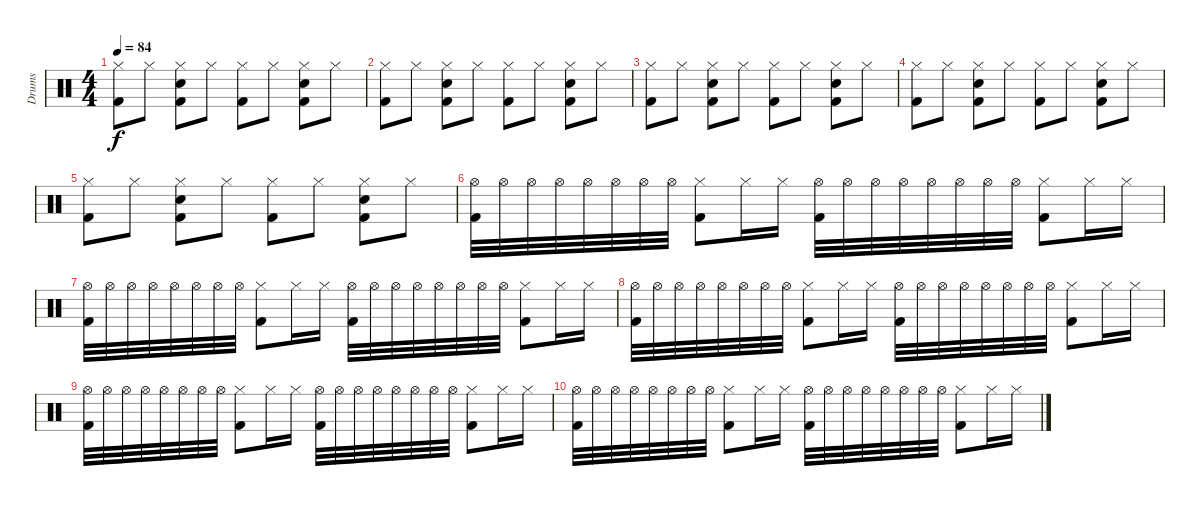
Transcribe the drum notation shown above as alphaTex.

\track ("Drums" "Drums") {instrument percussion}
\staff {score}
\articulation defaults
\ts (4 4)
\tempo 84
\clef neutral
\ks c
("Hi-Hat (closed)" "Kick (hit) 2").8{dy f} "Hi-Hat (closed)".8 ("Hi-Hat (closed)" "Snare (hit) 2" "Kick (hit) 2").8 "Hi-Hat (closed)".8 ("Hi-Hat (closed)" "Kick (hit) 2").8 "Hi-Hat (closed)".8 ("Hi-Hat (closed)" "Snare (hit) 2" "Kick (hit) 2").8 "Hi-Hat (closed)".8 |
("Hi-Hat (closed)" "Kick (hit) 2").8 "Hi-Hat (closed)".8 ("Hi-Hat (closed)" "Snare (hit) 2" "Kick (hit) 2").8 "Hi-Hat (closed)".8 ("Hi-Hat (closed)" "Kick (hit) 2").8 "Hi-Hat (closed)".8 ("Hi-Hat (closed)" "Snare (hit) 2" "Kick (hit) 2").8 "Hi-Hat (closed)".8 |
("Hi-Hat (closed)" "Kick (hit) 2").8 "Hi-Hat (closed)".8 ("Hi-Hat (closed)" "Snare (hit) 2" "Kick (hit) 2").8 "Hi-Hat (closed)".8 ("Hi-Hat (closed)" "Kick (hit) 2").8 "Hi-Hat (closed)".8 ("Hi-Hat (closed)" "Snare (hit) 2" "Kick (hit) 2").8 "Hi-Hat (closed)".8 |
("Hi-Hat (closed)" "Kick (hit) 2").8 "Hi-Hat (closed)".8 ("Hi-Hat (closed)" "Snare (hit) 2" "Kick (hit) 2").8 "Hi-Hat (closed)".8 ("Hi-Hat (closed)" "Kick (hit) 2").8 "Hi-Hat (closed)".8 ("Hi-Hat (closed)" "Snare (hit) 2" "Kick (hit) 2").8 "Hi-Hat (closed)".8 |
("Hi-Hat (closed)" "Kick (hit) 2").8 "Hi-Hat (closed)".8 ("Hi-Hat (closed)" "Snare (hit) 2" "Kick (hit) 2").8 "Hi-Hat (closed)".8 ("Hi-Hat (closed)" "Kick (hit) 2").8 "Hi-Hat (closed)".8 ("Hi-Hat (closed)" "Snare (hit) 2" "Kick (hit) 2").8 "Hi-Hat (closed)".8 |
("Hi-Hat (open)" "Kick (hit) 2").32 "Hi-Hat (open)".32 "Hi-Hat (open)".32 "Hi-Hat (open)".32 "Hi-Hat (open)".32 "Hi-Hat (open)".32 "Hi-Hat (open)".32 "Hi-Hat (open)".32 ("Hi-Hat (closed)" "Kick (hit) 2").8 "Hi-Hat (closed)".16 "Hi-Hat (closed)".16 ("Hi-Hat (open)" "Kick (hit) 2").32 "Hi-Hat (open)".32 "Hi-Hat (open)".32 "Hi-Hat (open)".32 "Hi-Hat (open)".32 "Hi-Hat (open)".32 "Hi-Hat (open)".32 "Hi-Hat (open)".32 ("Hi-Hat (closed)" "Kick (hit) 2").8 "Hi-Hat (closed)".16 "Hi-Hat (closed)".16 |
("Hi-Hat (open)" "Kick (hit) 2").32 "Hi-Hat (open)".32 "Hi-Hat (open)".32 "Hi-Hat (open)".32 "Hi-Hat (open)".32 "Hi-Hat (open)".32 "Hi-Hat (open)".32 "Hi-Hat (open)".32 ("Hi-Hat (closed)" "Kick (hit) 2").8 "Hi-Hat (closed)".16 "Hi-Hat (closed)".16 ("Hi-Hat (open)" "Kick (hit) 2").32 "Hi-Hat (open)".32 "Hi-Hat (open)".32 "Hi-Hat (open)".32 "Hi-Hat (open)".32 "Hi-Hat (open)".32 "Hi-Hat (open)".32 "Hi-Hat (open)".32 ("Hi-Hat (closed)" "Kick (hit) 2").8 "Hi-Hat (closed)".16 "Hi-Hat (closed)".16 |
("Hi-Hat (open)" "Kick (hit) 2").32 "Hi-Hat (open)".32 "Hi-Hat (open)".32 "Hi-Hat (open)".32 "Hi-Hat (open)".32 "Hi-Hat (open)".32 "Hi-Hat (open)".32 "Hi-Hat (open)".32 ("Hi-Hat (closed)" "Kick (hit) 2").8 "Hi-Hat (closed)".16 "Hi-Hat (closed)".16 ("Hi-Hat (open)" "Kick (hit) 2").32 "Hi-Hat (open)".32 "Hi-Hat (open)".32 "Hi-Hat (open)".32 "Hi-Hat (open)".32 "Hi-Hat (open)".32 "Hi-Hat (open)".32 "Hi-Hat (open)".32 ("Hi-Hat (closed)" "Kick (hit) 2").8 "Hi-Hat (closed)".16 "Hi-Hat (closed)".16 |
("Hi-Hat (open)" "Kick (hit) 2").32 "Hi-Hat (open)".32 "Hi-Hat (open)".32 "Hi-Hat (open)".32 "Hi-Hat (open)".32 "Hi-Hat (open)".32 "Hi-Hat (open)".32 "Hi-Hat (open)".32 ("Hi-Hat (closed)" "Kick (hit) 2").8 "Hi-Hat (closed)".16 "Hi-Hat (closed)".16 ("Hi-Hat (open)" "Kick (hit) 2").32 "Hi-Hat (open)".32 "Hi-Hat (open)".32 "Hi-Hat (open)".32 "Hi-Hat (open)".32 "Hi-Hat (open)".32 "Hi-Hat (open)".32 "Hi-Hat (open)".32 ("Hi-Hat (closed)" "Kick (hit) 2").8 "Hi-Hat (closed)".16 "Hi-Hat (closed)".16 |
("Hi-Hat (open)" "Kick (hit) 2").32 "Hi-Hat (open)".32 "Hi-Hat (open)".32 "Hi-Hat (open)".32 "Hi-Hat (open)".32 "Hi-Hat (open)".32 "Hi-Hat (open)".32 "Hi-Hat (open)".32 ("Hi-Hat (closed)" "Kick (hit) 2").8 "Hi-Hat (closed)".16 "Hi-Hat (closed)".16 ("Hi-Hat (open)" "Kick (hit) 2").32 "Hi-Hat (open)".32 "Hi-Hat (open)".32 "Hi-Hat (open)".32 "Hi-Hat (open)".32 "Hi-Hat (open)".32 "Hi-Hat (open)".32 "Hi-Hat (open)".32 ("Hi-Hat (closed)" "Kick (hit) 2").8 "Hi-Hat (closed)".16 "Hi-Hat (closed)".16
